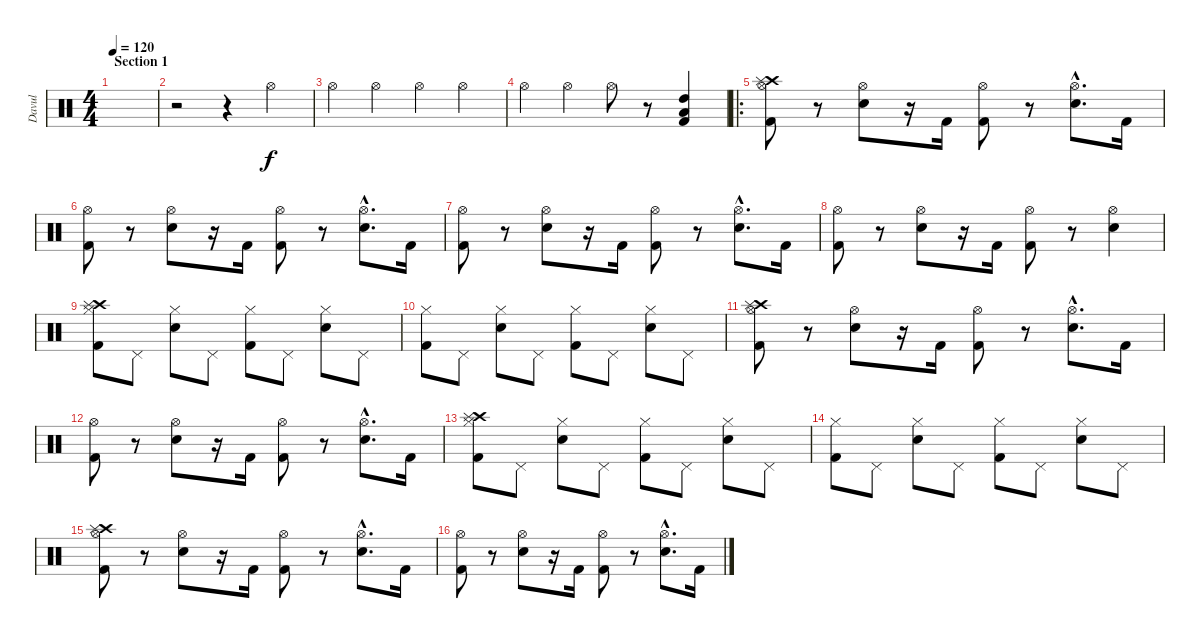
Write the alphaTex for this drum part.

\track ("Davul" "Davul") {instrument percussion}
\staff {score}
\articulation defaults
\ts (4 4)
\section ("" "Section 1")
\tempo 120
\clef neutral
\ks c
|
r.2 r.4 "Hi-Hat (open)".4 |
"Hi-Hat (open)".4 "Hi-Hat (open)".4 "Hi-Hat (open)".4 "Hi-Hat (open)".4 |
"Hi-Hat (open)".4 "Hi-Hat (open)".4 "Hi-Hat (open)".8 r.8 ("Kick (hit) 2" "Low Tom (hit)" "High Tom (hit)").4 |
\ro
("Hi-Hat (open)" "Kick (hit) 2" "Crash high (hit)" "Splash (hit)").8 r.8 ("Hi-Hat (open)" "Snare (hit) 2").8 r.16 "Kick (hit) 2".16 ("Hi-Hat (open)" "Kick (hit) 2").8 r.8 ("Hi-Hat (open)"{hac} "Snare (hit) 2"{hac}).8{d} "Kick (hit) 2".16 |
("Hi-Hat (open)" "Kick (hit) 2").8 r.8 ("Hi-Hat (open)" "Snare (hit) 2").8 r.16 "Kick (hit) 2".16 ("Hi-Hat (open)" "Kick (hit) 2").8 r.8 ("Hi-Hat (open)"{hac} "Snare (hit) 2"{hac}).8{d} "Kick (hit) 2".16 |
("Hi-Hat (open)" "Kick (hit) 2").8 r.8 ("Hi-Hat (open)" "Snare (hit) 2").8 r.16 "Kick (hit) 2".16 ("Hi-Hat (open)" "Kick (hit) 2").8 r.8 ("Hi-Hat (open)"{hac} "Snare (hit) 2"{hac}).8{d} "Kick (hit) 2".16 |
("Hi-Hat (open)" "Kick (hit) 2").8 r.8 ("Hi-Hat (open)" "Snare (hit) 2").8 r.16 "Kick (hit) 2".16 ("Hi-Hat (open)" "Kick (hit) 2").8 r.8 ("Hi-Hat (open)" "Snare (hit) 2").4 |
("Hi-Hat (closed)" "Kick (hit) 2" "Crash high (hit)" "Splash (hit)").8 "Pedal Hi-Hat (hit)".8 ("Hi-Hat (closed)" "Snare (hit) 2").8 "Pedal Hi-Hat (hit)".8 ("Hi-Hat (closed)" "Kick (hit) 2").8 "Pedal Hi-Hat (hit)".8 ("Hi-Hat (closed)" "Snare (hit) 2").8 "Pedal Hi-Hat (hit)".8 |
("Hi-Hat (closed)" "Kick (hit) 2").8 "Pedal Hi-Hat (hit)".8 ("Hi-Hat (closed)" "Snare (hit) 2").8 "Pedal Hi-Hat (hit)".8 ("Hi-Hat (closed)" "Kick (hit) 2").8 "Pedal Hi-Hat (hit)".8 ("Hi-Hat (closed)" "Snare (hit) 2").8 "Pedal Hi-Hat (hit)".8 |
("Hi-Hat (open)" "Kick (hit) 2" "Crash high (hit)" "Splash (hit)").8 r.8 ("Hi-Hat (open)" "Snare (hit) 2").8 r.16 "Kick (hit) 2".16 ("Hi-Hat (open)" "Kick (hit) 2").8 r.8 ("Hi-Hat (open)"{hac} "Snare (hit) 2"{hac}).8{d} "Kick (hit) 2".16 |
("Hi-Hat (open)" "Kick (hit) 2").8 r.8 ("Hi-Hat (open)" "Snare (hit) 2").8 r.16 "Kick (hit) 2".16 ("Hi-Hat (open)" "Kick (hit) 2").8 r.8 ("Hi-Hat (open)"{hac} "Snare (hit) 2"{hac}).8{d} "Kick (hit) 2".16 |
("Hi-Hat (closed)" "Kick (hit) 2" "Crash high (hit)" "Splash (hit)").8 "Pedal Hi-Hat (hit)".8 ("Hi-Hat (closed)" "Snare (hit) 2").8 "Pedal Hi-Hat (hit)".8 ("Hi-Hat (closed)" "Kick (hit) 2").8 "Pedal Hi-Hat (hit)".8 ("Hi-Hat (closed)" "Snare (hit) 2").8 "Pedal Hi-Hat (hit)".8 |
("Hi-Hat (closed)" "Kick (hit) 2").8 "Pedal Hi-Hat (hit)".8 ("Hi-Hat (closed)" "Snare (hit) 2").8 "Pedal Hi-Hat (hit)".8 ("Hi-Hat (closed)" "Kick (hit) 2").8 "Pedal Hi-Hat (hit)".8 ("Hi-Hat (closed)" "Snare (hit) 2").8 "Pedal Hi-Hat (hit)".8 |
("Hi-Hat (open)" "Kick (hit) 2" "Crash high (hit)" "Splash (hit)").8 r.8 ("Hi-Hat (open)" "Snare (hit) 2").8 r.16 "Kick (hit) 2".16 ("Hi-Hat (open)" "Kick (hit) 2").8 r.8 ("Hi-Hat (open)"{hac} "Snare (hit) 2"{hac}).8{d} "Kick (hit) 2".16 |
("Hi-Hat (open)" "Kick (hit) 2").8 r.8 ("Hi-Hat (open)" "Snare (hit) 2").8 r.16 "Kick (hit) 2".16 ("Hi-Hat (open)" "Kick (hit) 2").8 r.8 ("Hi-Hat (open)"{hac} "Snare (hit) 2"{hac}).8{d} "Kick (hit) 2".16
